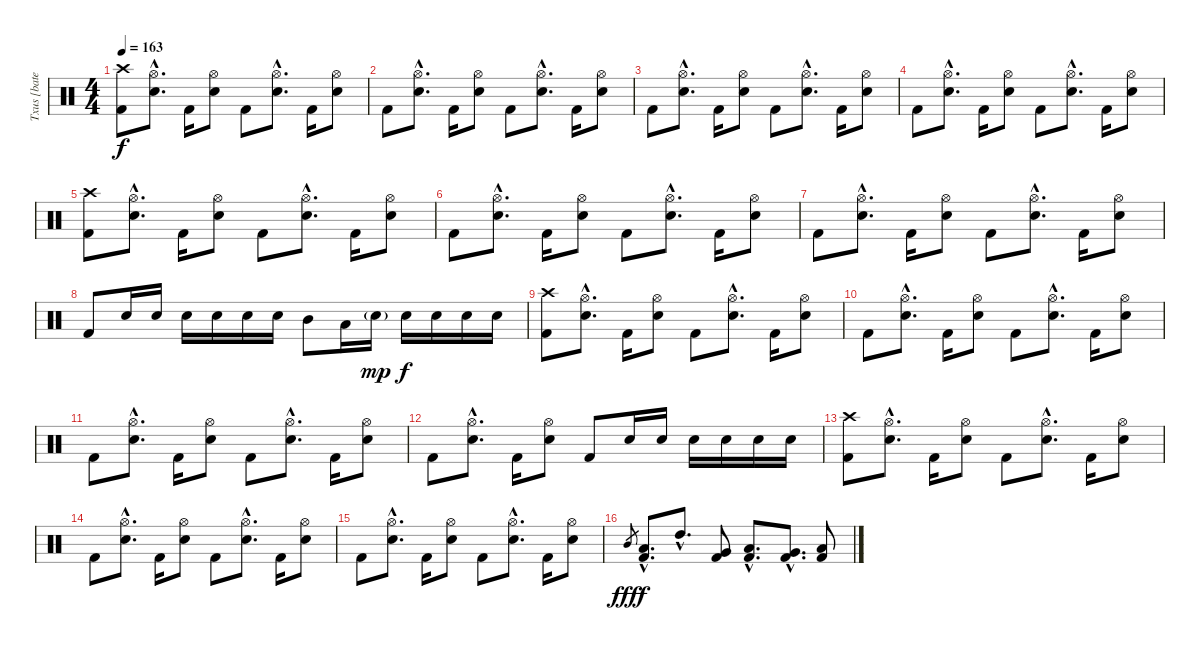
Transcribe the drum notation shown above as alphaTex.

\track ("Txus [bateria]" "Txus [bate") {instrument percussion}
\staff {score}
\articulation defaults
\ts (4 4)
\tempo 163
\clef neutral
\ks c
("Crash high (hit)" "Kick (hit) 2").8{dy f volume 13} ("Hi-Hat (open)"{hac} "Snare (hit) 2"{hac}).8{d} "Kick (hit) 2".16 ("Hi-Hat (open)" "Snare (hit) 2").8 "Kick (hit) 2".8 ("Hi-Hat (open)"{hac} "Snare (hit) 2"{hac}).8{d} "Kick (hit) 2".16 ("Hi-Hat (open)" "Snare (hit) 2").8 |
"Kick (hit) 2".8 ("Hi-Hat (open)"{hac} "Snare (hit) 2"{hac}).8{d} "Kick (hit) 2".16 ("Hi-Hat (open)" "Snare (hit) 2").8 "Kick (hit) 2".8 ("Hi-Hat (open)"{hac} "Snare (hit) 2"{hac}).8{d} "Kick (hit) 2".16 ("Hi-Hat (open)" "Snare (hit) 2").8 |
"Kick (hit) 2".8 ("Hi-Hat (open)"{hac} "Snare (hit) 2"{hac}).8{d} "Kick (hit) 2".16 ("Hi-Hat (open)" "Snare (hit) 2").8 "Kick (hit) 2".8 ("Hi-Hat (open)"{hac} "Snare (hit) 2"{hac}).8{d} "Kick (hit) 2".16 ("Hi-Hat (open)" "Snare (hit) 2").8 |
"Kick (hit) 2".8 ("Hi-Hat (open)"{hac} "Snare (hit) 2"{hac}).8{d} "Kick (hit) 2".16 ("Hi-Hat (open)" "Snare (hit) 2").8 "Kick (hit) 2".8 ("Hi-Hat (open)"{hac} "Snare (hit) 2"{hac}).8{d} "Kick (hit) 2".16 ("Hi-Hat (open)" "Snare (hit) 2").8 |
("Crash high (hit)" "Kick (hit) 2").8 ("Hi-Hat (open)"{hac} "Snare (hit) 2"{hac}).8{d} "Kick (hit) 2".16 ("Hi-Hat (open)" "Snare (hit) 2").8 "Kick (hit) 2".8 ("Hi-Hat (open)"{hac} "Snare (hit) 2"{hac}).8{d} "Kick (hit) 2".16 ("Hi-Hat (open)" "Snare (hit) 2").8 |
"Kick (hit) 2".8 ("Hi-Hat (open)"{hac} "Snare (hit) 2"{hac}).8{d} "Kick (hit) 2".16 ("Hi-Hat (open)" "Snare (hit) 2").8 "Kick (hit) 2".8 ("Hi-Hat (open)"{hac} "Snare (hit) 2"{hac}).8{d} "Kick (hit) 2".16 ("Hi-Hat (open)" "Snare (hit) 2").8 |
"Kick (hit) 2".8 ("Hi-Hat (open)"{hac} "Snare (hit) 2"{hac}).8{d} "Kick (hit) 2".16 ("Hi-Hat (open)" "Snare (hit) 2").8 "Kick (hit) 2".8 ("Hi-Hat (open)"{hac} "Snare (hit) 2"{hac}).8{d} "Kick (hit) 2".16 ("Hi-Hat (open)" "Snare (hit) 2").8 |
"Kick (hit) 2".8 "Snare (hit) 2".16 "Snare (hit) 2".16 "Snare (hit) 2".16 "Snare (hit) 2".16 "Snare (hit) 2".16 "Snare (hit) 2".16 "Mid Tom (hit)".8 "Low Tom (hit)".16 "Snare (hit) 2"{g}.16{dy mp} "Snare (hit) 2".16{dy f} "Snare (hit) 2".16 "Snare (hit) 2".16 "Snare (hit) 2".16 |
("Crash high (hit)" "Kick (hit) 2").8 ("Hi-Hat (open)"{hac} "Snare (hit) 2"{hac}).8{d} "Kick (hit) 2".16 ("Hi-Hat (open)" "Snare (hit) 2").8 "Kick (hit) 2".8 ("Hi-Hat (open)"{hac} "Snare (hit) 2"{hac}).8{d} "Kick (hit) 2".16 ("Hi-Hat (open)" "Snare (hit) 2").8 |
"Kick (hit) 2".8 ("Hi-Hat (open)"{hac} "Snare (hit) 2"{hac}).8{d} "Kick (hit) 2".16 ("Hi-Hat (open)" "Snare (hit) 2").8 "Kick (hit) 2".8 ("Hi-Hat (open)"{hac} "Snare (hit) 2"{hac}).8{d} "Kick (hit) 2".16 ("Hi-Hat (open)" "Snare (hit) 2").8 |
"Kick (hit) 2".8 ("Hi-Hat (open)"{hac} "Snare (hit) 2"{hac}).8{d} "Kick (hit) 2".16 ("Hi-Hat (open)" "Snare (hit) 2").8 "Kick (hit) 2".8 ("Hi-Hat (open)"{hac} "Snare (hit) 2"{hac}).8{d} "Kick (hit) 2".16 ("Hi-Hat (open)" "Snare (hit) 2").8 |
"Kick (hit) 2".8 ("Hi-Hat (open)"{hac} "Snare (hit) 2"{hac}).8{d} "Kick (hit) 2".16 ("Hi-Hat (open)" "Snare (hit) 2").8 "Kick (hit) 2".8 "Snare (hit) 2".16 "Snare (hit) 2".16 "Snare (hit) 2".16 "Snare (hit) 2".16 "Snare (hit) 2".16 "Snare (hit) 2".16 |
("Crash high (hit)" "Kick (hit) 2").8 ("Hi-Hat (open)"{hac} "Snare (hit) 2"{hac}).8{d} "Kick (hit) 2".16 ("Hi-Hat (open)" "Snare (hit) 2").8 "Kick (hit) 2".8 ("Hi-Hat (open)"{hac} "Snare (hit) 2"{hac}).8{d} "Kick (hit) 2".16 ("Hi-Hat (open)" "Snare (hit) 2").8 |
"Kick (hit) 2".8 ("Hi-Hat (open)"{hac} "Snare (hit) 2"{hac}).8{d} "Kick (hit) 2".16 ("Hi-Hat (open)" "Snare (hit) 2").8 "Kick (hit) 2".8 ("Hi-Hat (open)"{hac} "Snare (hit) 2"{hac}).8{d} "Kick (hit) 2".16 ("Hi-Hat (open)" "Snare (hit) 2").8 |
"Kick (hit) 2".8 ("Hi-Hat (open)"{hac} "Snare (hit) 2"{hac}).8{d} "Kick (hit) 2".16 ("Hi-Hat (open)" "Snare (hit) 2").8 "Kick (hit) 2".8 ("Hi-Hat (open)"{hac} "Snare (hit) 2"{hac}).8{d} "Kick (hit) 2".16 ("Hi-Hat (open)" "Snare (hit) 2").8 |
"Mid Tom (hit)".8{gr dy fff} ("Low Tom (hit)"{hac} "Kick (hit) 2"{hac}).8{d dy f} "High Tom (hit)"{hac}.8{d} ("Very Low Tom (hit)" "Kick (hit) 2").8 ("Low Tom (hit)"{hac} "Kick (hit) 2"{hac}).8{d} ("Very Low Tom (hit)"{hac} "Kick (hit) 2"{hac}).8{d} ("Low Floor Tom (hit)" "Kick (hit) 2").8
